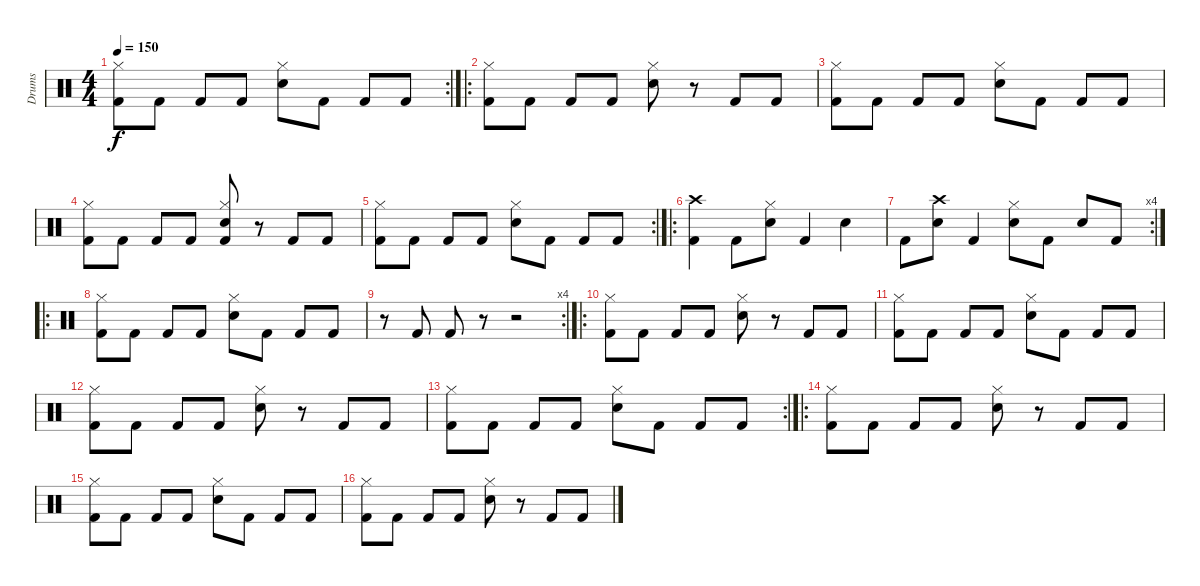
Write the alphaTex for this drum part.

\track ("Drums" "Drums") {instrument percussion}
\staff {score}
\articulation defaults
\rc 2
\ts (4 4)
\tempo 150
\clef neutral
\ks c
("Kick (hit) 2" "Hi-Hat (closed)").8{dy f} "Kick (hit) 2".8 "Kick (hit) 2".8 "Kick (hit) 2".8 ("Electric Snare (hit)" "Hi-Hat (closed)").8 "Kick (hit) 2".8 "Kick (hit) 2".8 "Kick (hit) 2".8 |
\ro
("Kick (hit) 2" "Hi-Hat (closed)").8 "Kick (hit) 2".8 "Kick (hit) 2".8 "Kick (hit) 2".8 ("Electric Snare (hit)" "Hi-Hat (closed)").8 r.8 "Kick (hit) 2".8 "Kick (hit) 2".8 |
("Kick (hit) 2" "Hi-Hat (closed)").8 "Kick (hit) 2".8 "Kick (hit) 2".8 "Kick (hit) 2".8 ("Electric Snare (hit)" "Hi-Hat (closed)").8 "Kick (hit) 2".8 "Kick (hit) 2".8 "Kick (hit) 2".8 |
("Kick (hit) 2" "Hi-Hat (closed)").8 "Kick (hit) 2".8 "Kick (hit) 2".8 "Kick (hit) 2".8 ("Kick (hit) 2" "Electric Snare (hit)" "Hi-Hat (closed)").8 r.8 "Kick (hit) 2".8 "Kick (hit) 2".8 |
\rc 2
("Kick (hit) 2" "Hi-Hat (closed)").8 "Kick (hit) 2".8 "Kick (hit) 2".8 "Kick (hit) 2".8 ("Electric Snare (hit)" "Hi-Hat (closed)").8 "Kick (hit) 2".8 "Kick (hit) 2".8 "Kick (hit) 2".8 |
\ro
("Kick (hit) 2" "Crash high (hit)").4 "Kick (hit) 2".8 ("Electric Snare (hit)" "Hi-Hat (closed)").8 "Kick (hit) 2".4 "Electric Snare (hit)".4 |
\rc 4 "Kick (hit) 2".8
("Electric Snare (hit)" "Crash high (hit)").8 "Kick (hit) 2".4 ("Electric Snare (hit)" "Hi-Hat (closed)").8 "Kick (hit) 2".8 "Electric Snare (hit)".8 "Kick (hit) 2".8 |
\ro
("Kick (hit) 2" "Hi-Hat (closed)").8 "Kick (hit) 2".8 "Kick (hit) 2".8 "Kick (hit) 2".8 ("Electric Snare (hit)" "Hi-Hat (closed)").8 "Kick (hit) 2".8 "Kick (hit) 2".8 "Kick (hit) 2".8 |
\rc 4
r.8 "Kick (hit) 2".8 "Kick (hit) 2".8 r.8 r.2 |
\ro
("Kick (hit) 2" "Hi-Hat (closed)").8 "Kick (hit) 2".8 "Kick (hit) 2".8 "Kick (hit) 2".8 ("Electric Snare (hit)" "Hi-Hat (closed)").8 r.8 "Kick (hit) 2".8 "Kick (hit) 2".8 |
("Kick (hit) 2" "Hi-Hat (closed)").8 "Kick (hit) 2".8 "Kick (hit) 2".8 "Kick (hit) 2".8 ("Electric Snare (hit)" "Hi-Hat (closed)").8 "Kick (hit) 2".8 "Kick (hit) 2".8 "Kick (hit) 2".8 |
("Kick (hit) 2" "Hi-Hat (closed)").8 "Kick (hit) 2".8 "Kick (hit) 2".8 "Kick (hit) 2".8 ("Electric Snare (hit)" "Hi-Hat (closed)").8 r.8 "Kick (hit) 2".8 "Kick (hit) 2".8 |
\rc 2
("Kick (hit) 2" "Hi-Hat (closed)").8 "Kick (hit) 2".8 "Kick (hit) 2".8 "Kick (hit) 2".8 ("Electric Snare (hit)" "Hi-Hat (closed)").8 "Kick (hit) 2".8 "Kick (hit) 2".8 "Kick (hit) 2".8 |
\ro
("Kick (hit) 2" "Hi-Hat (closed)").8 "Kick (hit) 2".8 "Kick (hit) 2".8 "Kick (hit) 2".8 ("Electric Snare (hit)" "Hi-Hat (closed)").8 r.8 "Kick (hit) 2".8 "Kick (hit) 2".8 |
("Kick (hit) 2" "Hi-Hat (closed)").8 "Kick (hit) 2".8 "Kick (hit) 2".8 "Kick (hit) 2".8 ("Electric Snare (hit)" "Hi-Hat (closed)").8 "Kick (hit) 2".8 "Kick (hit) 2".8 "Kick (hit) 2".8 |
("Kick (hit) 2" "Hi-Hat (closed)").8 "Kick (hit) 2".8 "Kick (hit) 2".8 "Kick (hit) 2".8 ("Electric Snare (hit)" "Hi-Hat (closed)").8 r.8 "Kick (hit) 2".8 "Kick (hit) 2".8
